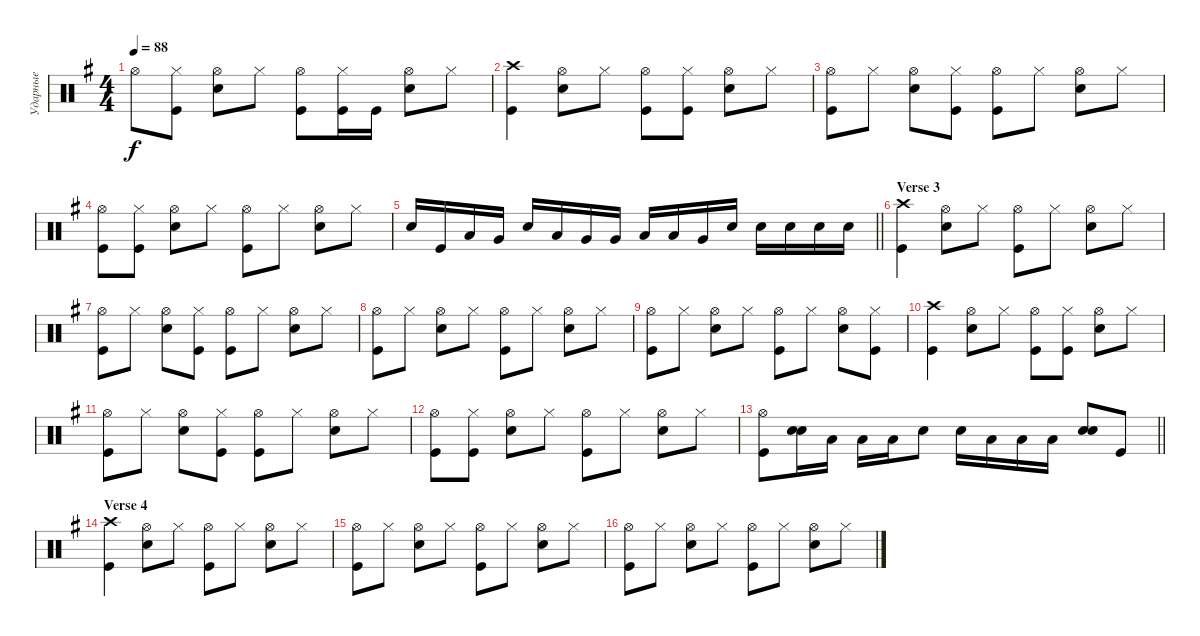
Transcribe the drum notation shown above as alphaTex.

\track ("Ударные" "Ударные") {instrument percussion}
\staff {score}
\articulation defaults
\ts (4 4)
\tempo 88
\clef neutral
\ks eminor "Hi-Hat (open)".8{dy f}
("Hi-Hat (closed)" "Kick (hit)").8 ("Snare (hit) 2" "Hi-Hat (open)").8 "Hi-Hat (closed)".8 ("Kick (hit)" "Hi-Hat (open)").8 ("Kick (hit)" "Hi-Hat (closed)").16 "Kick (hit)".16 ("Snare (hit) 2" "Hi-Hat (open)").8 "Hi-Hat (closed)".8 |
("Kick (hit)" "Crash high (hit)").4 ("Snare (hit) 2" "Hi-Hat (open)").8 "Hi-Hat (closed)".8 ("Hi-Hat (open)" "Kick (hit)").8 ("Hi-Hat (closed)" "Kick (hit)").8 ("Snare (hit) 2" "Hi-Hat (open)").8 "Hi-Hat (closed)".8 |
("Kick (hit)" "Hi-Hat (open)").8 "Hi-Hat (closed)".8 ("Hi-Hat (open)" "Snare (hit) 2").8 ("Hi-Hat (closed)" "Kick (hit)").8 ("Kick (hit)" "Hi-Hat (open)").8 "Hi-Hat (closed)".8 ("Hi-Hat (open)" "Snare (hit) 2").8 "Hi-Hat (closed)".8 |
("Kick (hit)" "Hi-Hat (open)").8 ("Hi-Hat (closed)" "Kick (hit)").8 ("Hi-Hat (open)" "Snare (hit) 2").8 "Hi-Hat (closed)".8 ("Kick (hit)" "Hi-Hat (open)").8 "Hi-Hat (closed)".8 ("Hi-Hat (open)" "Snare (hit) 2").8 "Hi-Hat (closed)".8 |
\barLineRight lightlight "Snare (hit) 2".16 "Kick (hit)".16 "Low Tom (hit)".16 "Very Low Tom (hit)".16 "Snare (hit) 2".16 "Low Tom (hit)".16 "Very Low Tom (hit)".16 "Very Low Tom (hit)".16 "Low Floor Tom (hit)".16 "Low Floor Tom (hit)".16 "Very Low Tom (hit)".16 "Snare (hit) 2".16 "Snare (hit) 2".16 "Snare (hit) 2".16 "Snare (hit) 2".16 "Snare (hit) 2".16
|
\section ("" "Verse 3")
("Kick (hit)" "Crash high (hit)").4 ("Snare (hit) 2" "Hi-Hat (open)").8 "Hi-Hat (closed)".8 ("Hi-Hat (open)" "Kick (hit)").8 "Hi-Hat (closed)".8 ("Snare (hit) 2" "Hi-Hat (open)").8 "Hi-Hat (closed)".8 |
("Kick (hit)" "Hi-Hat (open)").8 "Hi-Hat (closed)".8 ("Hi-Hat (open)" "Snare (hit) 2").8 ("Hi-Hat (closed)" "Kick (hit)").8 ("Kick (hit)" "Hi-Hat (open)").8 "Hi-Hat (closed)".8 ("Hi-Hat (open)" "Snare (hit) 2").8 "Hi-Hat (closed)".8 |
("Kick (hit)" "Hi-Hat (open)").8 "Hi-Hat (closed)".8 ("Hi-Hat (open)" "Snare (hit) 2").8 "Hi-Hat (closed)".8 ("Kick (hit)" "Hi-Hat (open)").8 "Hi-Hat (closed)".8 ("Hi-Hat (open)" "Snare (hit) 2").8 "Hi-Hat (closed)".8 |
("Kick (hit)" "Hi-Hat (open)").8 "Hi-Hat (closed)".8 ("Hi-Hat (open)" "Snare (hit) 2").8 "Hi-Hat (closed)".8 ("Kick (hit)" "Hi-Hat (open)").8 "Hi-Hat (closed)".8 ("Hi-Hat (open)" "Snare (hit) 2").8 ("Hi-Hat (closed)" "Kick (hit)").8 |
("Kick (hit)" "Crash high (hit)").4 ("Snare (hit) 2" "Hi-Hat (open)").8 "Hi-Hat (closed)".8 ("Hi-Hat (open)" "Kick (hit)").8 ("Hi-Hat (closed)" "Kick (hit)").8 ("Snare (hit) 2" "Hi-Hat (open)").8 "Hi-Hat (closed)".8 |
("Kick (hit)" "Hi-Hat (open)").8 "Hi-Hat (closed)".8 ("Hi-Hat (open)" "Snare (hit) 2").8 ("Hi-Hat (closed)" "Kick (hit)").8 ("Kick (hit)" "Hi-Hat (open)").8 "Hi-Hat (closed)".8 ("Hi-Hat (open)" "Snare (hit) 2").8 "Hi-Hat (closed)".8 |
("Kick (hit)" "Hi-Hat (open)").8 ("Hi-Hat (closed)" "Kick (hit)").8 ("Hi-Hat (open)" "Snare (hit) 2").8 "Hi-Hat (closed)".8 ("Kick (hit)" "Hi-Hat (open)").8 "Hi-Hat (closed)".8 ("Hi-Hat (open)" "Snare (hit) 2").8 "Hi-Hat (closed)".8 |
\barLineRight lightlight
("Kick (hit)" "Hi-Hat (open)").8 ("Snare (hit) 2" "Snare (hit) 2").16 "Low Floor Tom (hit)".16 "Low Floor Tom (hit)".16 "Low Floor Tom (hit)".16 "Snare (hit) 2".8 "Snare (hit) 2".16 "Low Floor Tom (hit)".16 "Low Floor Tom (hit)".16 "Low Floor Tom (hit)".16 ("Snare (hit) 2" "Snare (hit) 2").8{bd 240} "Kick (hit)".8 |
\section ("" "Verse 4")
("Kick (hit)" "Crash high (hit)").4 ("Snare (hit) 2" "Hi-Hat (open)").8 "Hi-Hat (closed)".8 ("Hi-Hat (open)" "Kick (hit)").8 "Hi-Hat (closed)".8 ("Snare (hit) 2" "Hi-Hat (open)").8 "Hi-Hat (closed)".8 |
("Kick (hit)" "Hi-Hat (open)").8 "Hi-Hat (closed)".8 ("Hi-Hat (open)" "Snare (hit) 2").8 "Hi-Hat (closed)".8 ("Kick (hit)" "Hi-Hat (open)").8 "Hi-Hat (closed)".8 ("Hi-Hat (open)" "Snare (hit) 2").8 "Hi-Hat (closed)".8 |
("Kick (hit)" "Hi-Hat (open)").8 "Hi-Hat (closed)".8 ("Hi-Hat (open)" "Snare (hit) 2").8 "Hi-Hat (closed)".8 ("Kick (hit)" "Hi-Hat (open)").8 "Hi-Hat (closed)".8 ("Hi-Hat (open)" "Snare (hit) 2").8 "Hi-Hat (closed)".8
